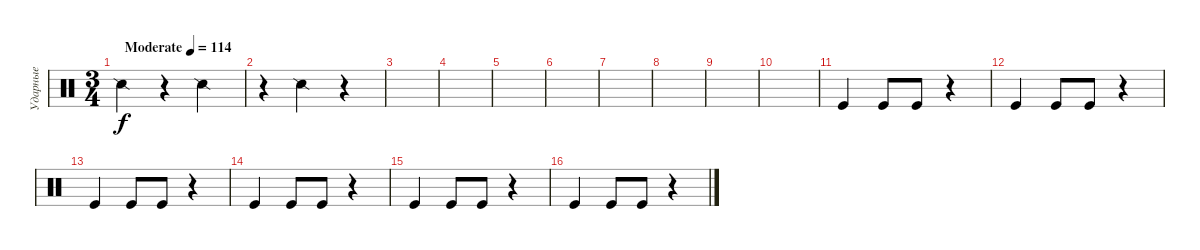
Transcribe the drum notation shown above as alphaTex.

\track ("Ударные" "Ударные") {instrument percussion}
\staff {score}
\articulation defaults
\ts (3 4)
\tempo (114 "Moderate")
\clef neutral
\ks c "Snare (side stick) 2".4{dy f}
r.4 "Snare (side stick) 2".4 |
r.4 "Snare (side stick) 2".4 r.4 |
|
|
|
|
|
|
|
|
"Kick (hit)".4{volume 7} "Kick (hit)".8 "Kick (hit)".8 r.4 |
"Kick (hit)".4 "Kick (hit)".8 "Kick (hit)".8 r.4 |
"Kick (hit)".4 "Kick (hit)".8 "Kick (hit)".8 r.4 |
"Kick (hit)".4 "Kick (hit)".8 "Kick (hit)".8 r.4 |
"Kick (hit)".4 "Kick (hit)".8 "Kick (hit)".8 r.4 |
"Kick (hit)".4 "Kick (hit)".8 "Kick (hit)".8 r.4
